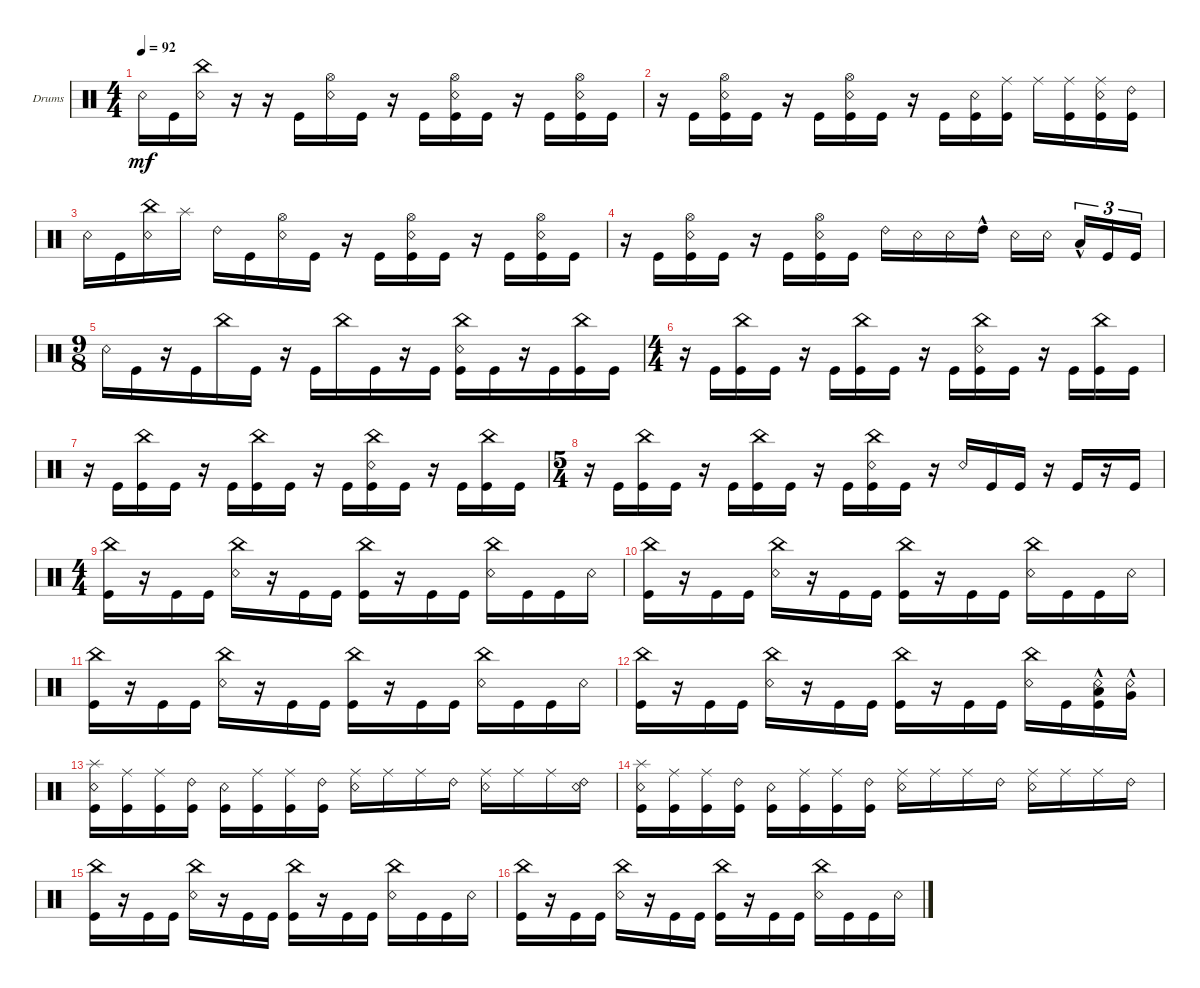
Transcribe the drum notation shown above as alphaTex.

\defaultSystemsLayout 4
\bracketExtendMode groupsimilarinstruments
\firstSystemTrackNameOrientation horizontal
\otherSystemsTrackNameOrientation horizontal
\track ("Drumkit" "Drums") {instrument percussion}
\staff {score}
\articulation defaults
\ts (4 4)
\tempo 92
\clef neutral
\ks c "Snare (rim shot)".16{dy mf} "Kick (hit)".16
("Snare (rim shot)" "China (hit)").16 r.16 r.16 "Kick (hit)".16 ("Snare (rim shot)" "Hi-Hat (open)").16 "Kick (hit)".16 r.16 "Kick (hit)".16 ("Kick (hit)" "Snare (rim shot)" "Hi-Hat (open)").16 "Kick (hit)".16 r.16 "Kick (hit)".16 ("Kick (hit)" "Snare (rim shot)" "Hi-Hat (open)").16 "Kick (hit)".16 |
r.16 "Kick (hit)".16 ("Kick (hit)" "Snare (rim shot)" "Hi-Hat (open)").16 "Kick (hit)".16 r.16 "Kick (hit)".16 ("Kick (hit)" "Hi-Hat (open)" "Snare (rim shot)").16 "Kick (hit)".16 r.16 "Kick (hit)".16 ("Kick (hit)" "Snare (rim shot)").16 ("Kick (hit)" "Ride (middle)").16 "Ride (middle)".16 ("Kick (hit)" "Ride (middle)").16 ("Kick (hit)" "Snare (rim shot)" "Ride (middle)").16 ("Kick (hit)" "Ride (bell) 2").16 |
"Snare (rim shot)".16 "Kick (hit)".16 ("Snare (rim shot)" "China (hit)").16 "Splash (hit)".16 "Ride (bell) 2".16 "Kick (hit)".16 ("Snare (rim shot)" "Hi-Hat (open)").16 "Kick (hit)".16 r.16 "Kick (hit)".16 ("Kick (hit)" "Snare (rim shot)" "Hi-Hat (open)").16 "Kick (hit)".16 r.16 "Kick (hit)".16 ("Kick (hit)" "Snare (rim shot)" "Hi-Hat (open)").16 "Kick (hit)".16 |
r.16 "Kick (hit)".16 ("Kick (hit)" "Snare (rim shot)" "Hi-Hat (open)").16 "Kick (hit)".16 r.16 "Kick (hit)".16 ("Kick (hit)" "Hi-Hat (open)" "Snare (rim shot)").16 "Kick (hit)".16 "Ride (bell) 2".16 "Snare (rim shot)".16 "Snare (rim shot)".16 "High Tom (hit)"{hac}.16 "Snare (rim shot)".16 "Snare (rim shot)".16 "Low Tom (hit)"{hac}.16{tu (3 2)} "Kick (hit)".16{tu (3 2)} "Kick (hit)".16{tu (3 2)} |
\ts (9 8)
"Snare (rim shot)".16 "Kick (hit)".16 r.16 "Kick (hit)".16 "China (hit)".16 "Kick (hit)".16 r.16 "Kick (hit)".16 "China (hit)".16 "Kick (hit)".16 r.16 "Kick (hit)".16 ("Kick (hit)" "China (hit)" "Snare (rim shot)").16 "Kick (hit)".16 r.16 "Kick (hit)".16 ("Kick (hit)" "China (hit)").16 "Kick (hit)".16 |
\ts (4 4)
r.16 "Kick (hit)".16 ("China (hit)" "Kick (hit)").16 "Kick (hit)".16 r.16 "Kick (hit)".16 ("Kick (hit)" "China (hit)").16 "Kick (hit)".16 r.16 "Kick (hit)".16 ("Kick (hit)" "China (hit)" "Snare (rim shot)").16 "Kick (hit)".16 r.16 "Kick (hit)".16 ("Kick (hit)" "China (hit)").16 "Kick (hit)".16 |
r.16 "Kick (hit)".16 ("China (hit)" "Kick (hit)").16 "Kick (hit)".16 r.16 "Kick (hit)".16 ("Kick (hit)" "China (hit)").16 "Kick (hit)".16 r.16 "Kick (hit)".16 ("Kick (hit)" "China (hit)" "Snare (rim shot)").16 "Kick (hit)".16 r.16 "Kick (hit)".16 ("Kick (hit)" "China (hit)").16 "Kick (hit)".16 |
\ts (5 4)
r.16 "Kick (hit)".16 ("China (hit)" "Kick (hit)").16 "Kick (hit)".16 r.16 "Kick (hit)".16 ("Kick (hit)" "China (hit)").16 "Kick (hit)".16 r.16 "Kick (hit)".16 ("Kick (hit)" "China (hit)" "Snare (rim shot)").16 "Kick (hit)".16 r.16 "Snare (rim shot)".16 "Kick (hit)".16 "Kick (hit)".16 r.16 "Kick (hit)".16 r.16 "Kick (hit)".16 |
\ts (4 4)
("China (hit)" "Kick (hit)").16 r.16 "Kick (hit)".16 "Kick (hit)".16 ("Snare (rim shot)" "China (hit)").16 r.16 "Kick (hit)".16 "Kick (hit)".16 ("Kick (hit)" "China (hit)").16 r.16 "Kick (hit)".16 "Kick (hit)".16 ("China (hit)" "Snare (rim shot)").16 "Kick (hit)".16 "Kick (hit)".16 "Snare (rim shot)".16 |
("China (hit)" "Kick (hit)").16 r.16 "Kick (hit)".16 "Kick (hit)".16 ("Snare (rim shot)" "China (hit)").16 r.16 "Kick (hit)".16 "Kick (hit)".16 ("Kick (hit)" "China (hit)").16 r.16 "Kick (hit)".16 "Kick (hit)".16 ("China (hit)" "Snare (rim shot)").16 "Kick (hit)".16 "Kick (hit)".16 "Snare (rim shot)".16 |
("China (hit)" "Kick (hit)").16 r.16 "Kick (hit)".16 "Kick (hit)".16 ("Snare (rim shot)" "China (hit)").16 r.16 "Kick (hit)".16 "Kick (hit)".16 ("Kick (hit)" "China (hit)").16 r.16 "Kick (hit)".16 "Kick (hit)".16 ("China (hit)" "Snare (rim shot)").16 "Kick (hit)".16 "Kick (hit)".16 "Snare (rim shot)".16 |
("China (hit)" "Kick (hit)").16 r.16 "Kick (hit)".16 "Kick (hit)".16 ("Snare (rim shot)" "China (hit)").16 r.16 "Kick (hit)".16 "Kick (hit)".16 ("Kick (hit)" "China (hit)").16 r.16 "Kick (hit)".16 "Kick (hit)".16 ("China (hit)" "Snare (rim shot)").16 "Kick (hit)".16 ("Kick (hit)" "Snare (rim shot)" "Low Tom (hit)"{hac}).16 ("Snare (rim shot)" "Very Low Tom (hit)"{hac}).16 |
("Splash (hit)" "Snare (rim shot)" "Kick (hit)").16 ("Ride (middle)" "Kick (hit)").16 ("Ride (middle)" "Kick (hit)").16 ("Ride (bell) 2" "Kick (hit)").16 ("Snare (rim shot)" "Kick (hit)").16 ("Ride (middle)" "Kick (hit)").16 ("Ride (middle)" "Kick (hit)").16 ("Ride (bell) 2" "Kick (hit)").16 ("Snare (rim shot)" "Ride (middle)").16 "Ride (middle)".16 "Ride (middle)".16 "Ride (bell) 2".16 ("Ride (middle)" "Snare (rim shot)").16 "Ride (middle)".16 "Ride (middle)".16 ("Ride (bell) 2" "Snare (rim shot)").16 |
("Splash (hit)" "Snare (rim shot)" "Kick (hit)").16 ("Ride (middle)" "Kick (hit)").16 ("Ride (middle)" "Kick (hit)").16 ("Ride (bell) 2" "Kick (hit)").16 ("Snare (rim shot)" "Kick (hit)").16 ("Ride (middle)" "Kick (hit)").16 ("Ride (middle)" "Kick (hit)").16 ("Ride (bell) 2" "Kick (hit)").16 ("Snare (rim shot)" "Ride (middle)").16 "Ride (middle)".16 "Ride (middle)".16 "Ride (bell) 2".16 ("Ride (middle)" "Snare (rim shot)").16 "Ride (middle)".16 "Ride (middle)".16 "Ride (bell) 2".16 |
("China (hit)" "Kick (hit)").16 r.16 "Kick (hit)".16 "Kick (hit)".16 ("Snare (rim shot)" "China (hit)").16 r.16 "Kick (hit)".16 "Kick (hit)".16 ("Kick (hit)" "China (hit)").16 r.16 "Kick (hit)".16 "Kick (hit)".16 ("China (hit)" "Snare (rim shot)").16 "Kick (hit)".16 "Kick (hit)".16 "Snare (rim shot)".16 |
("China (hit)" "Kick (hit)").16 r.16 "Kick (hit)".16 "Kick (hit)".16 ("Snare (rim shot)" "China (hit)").16 r.16 "Kick (hit)".16 "Kick (hit)".16 ("Kick (hit)" "China (hit)").16 r.16 "Kick (hit)".16 "Kick (hit)".16 ("China (hit)" "Snare (rim shot)").16 "Kick (hit)".16 "Kick (hit)".16 "Snare (rim shot)".16
